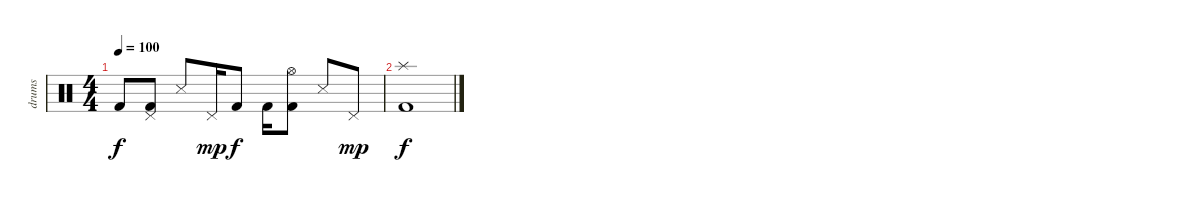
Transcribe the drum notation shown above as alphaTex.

\track ("drums" "drums") {instrument percussion}
\staff {score}
\articulation defaults
\ts (4 4)
\tempo 100
\clef neutral
\ks c "Kick (hit) 2".8{dy f}
("Pedal Hi-Hat (hit)" "Kick (hit) 2").8 "Snare (side stick) 3".8 "Pedal Hi-Hat (hit)".16{dy mp} "Kick (hit) 2".8{dy f} "Kick (hit) 2".16 ("Hi-Hat (open)" "Kick (hit) 2").8 "Snare (side stick) 3".8 "Pedal Hi-Hat (hit)".8{dy mp} |
("Splash (hit)" "Kick (hit) 2").1{dy f}
